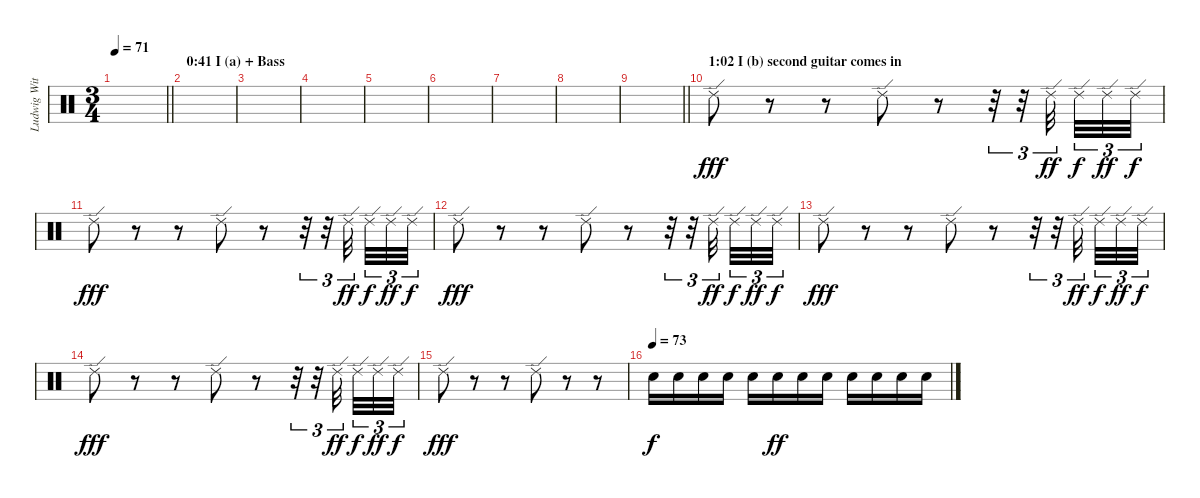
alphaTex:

\track ("Ludwig Witt (Drums)" "Ludwig Wit") {instrument percussion}
\staff
\articulation defaults
\ts (3 4)
\tempo 71
\clef neutral
\barLineRight lightlight
\ks c
|
\section ("" "0:41 I (a) + Bass")
|
|
|
|
|
|
|
\barLineRight lightlight
|
\section ("" "1:02 I (b) second guitar comes in")
"Ride (edge) 2".8{dy fff} r.8 r.8 "Ride (edge) 2".8 r.8 r.32{tu (3 2)} r.32{tu (3 2)} "Ride (edge) 2".32{tu (3 2) dy ff beam splitsecondary} "Ride (edge) 2".32{tu (3 2) dy f} "Ride (edge) 2".32{tu (3 2) dy ff} "Ride (edge) 2".32{tu (3 2) dy f} |
"Ride (edge) 2".8{dy fff} r.8 r.8 "Ride (edge) 2".8 r.8 r.32{tu (3 2)} r.32{tu (3 2)} "Ride (edge) 2".32{tu (3 2) dy ff beam splitsecondary} "Ride (edge) 2".32{tu (3 2) dy f} "Ride (edge) 2".32{tu (3 2) dy ff} "Ride (edge) 2".32{tu (3 2) dy f} |
"Ride (edge) 2".8{dy fff} r.8 r.8 "Ride (edge) 2".8 r.8 r.32{tu (3 2)} r.32{tu (3 2)} "Ride (edge) 2".32{tu (3 2) dy ff beam splitsecondary} "Ride (edge) 2".32{tu (3 2) dy f} "Ride (edge) 2".32{tu (3 2) dy ff} "Ride (edge) 2".32{tu (3 2) dy f} |
"Ride (edge) 2".8{dy fff} r.8 r.8 "Ride (edge) 2".8 r.8 r.32{tu (3 2)} r.32{tu (3 2)} "Ride (edge) 2".32{tu (3 2) dy ff beam splitsecondary} "Ride (edge) 2".32{tu (3 2) dy f} "Ride (edge) 2".32{tu (3 2) dy ff} "Ride (edge) 2".32{tu (3 2) dy f} |
"Ride (edge) 2".8{dy fff} r.8 r.8 "Ride (edge) 2".8 r.8 r.32{tu (3 2)} r.32{tu (3 2)} "Ride (edge) 2".32{tu (3 2) dy ff beam splitsecondary} "Ride (edge) 2".32{tu (3 2) dy f} "Ride (edge) 2".32{tu (3 2) dy ff} "Ride (edge) 2".32{tu (3 2) dy f} |
"Ride (edge) 2".8{dy fff} r.8 r.8 "Ride (edge) 2".8 r.8 r.8 |
\tempo (73)
"Electric Snare (hit)".16{dy f} "Electric Snare (hit)".16 "Electric Snare (hit)".16 "Electric Snare (hit)".16 "Electric Snare (hit)".16 "Electric Snare (hit)".16{dy ff} "Electric Snare (hit)".16 "Electric Snare (hit)".16 "Electric Snare (hit)".16 "Electric Snare (hit)".16 "Electric Snare (hit)".16 "Electric Snare (hit)".16
